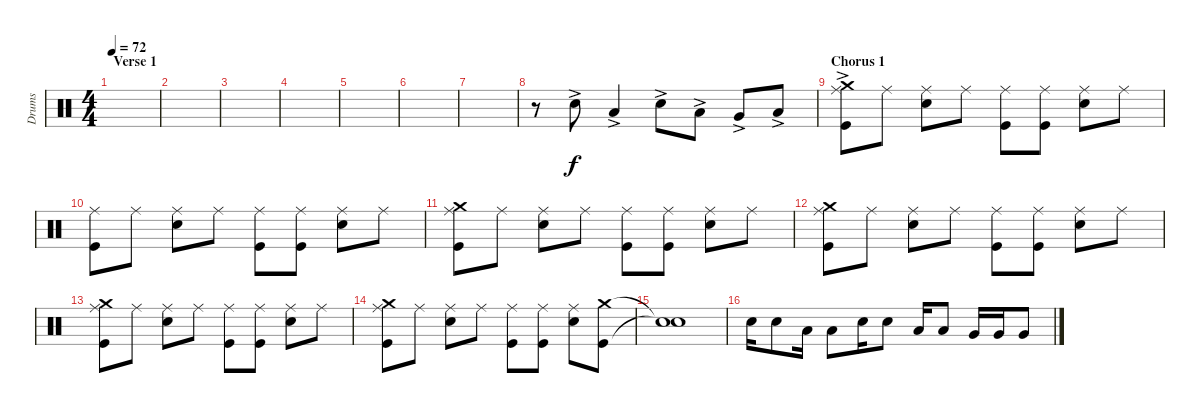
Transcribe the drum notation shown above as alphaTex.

\track ("Drums" "Drums") {instrument percussion}
\staff {score}
\articulation defaults
\ts (4 4)
\section ("" "Verse 1")
\tempo 72
\clef neutral
\ks c
|
|
|
|
|
|
|
r.8 "Snare (hit) 2"{ac}.8 "Low Tom (hit)"{ac}.4 "Snare (hit) 2"{ac}.8 "Low Tom (hit)"{ac}.8 "Very Low Tom (hit)"{ac}.8 "Low Floor Tom (hit)"{ac}.8 |
\section ("" "Chorus 1")
("Ride (middle)" "Crash medium (hit)"{ac} "Kick (hit)").8 "Ride (middle)".8{dy f} ("Ride (middle)" "Snare (hit) 2").8 "Ride (middle)".8 ("Ride (middle)" "Kick (hit)").8 ("Ride (middle)" "Kick (hit)").8 ("Ride (middle)" "Snare (hit) 2").8 "Ride (middle)".8 |
("Ride (middle)" "Kick (hit)").8 "Ride (middle)".8 ("Ride (middle)" "Snare (hit) 2").8 "Ride (middle)".8 ("Ride (middle)" "Kick (hit)").8 ("Ride (middle)" "Kick (hit)").8 ("Ride (middle)" "Snare (hit) 2").8 "Ride (middle)".8 |
("Ride (middle)" "Crash medium (hit)" "Kick (hit)").8 "Ride (middle)".8 ("Ride (middle)" "Snare (hit) 2").8 "Ride (middle)".8 ("Ride (middle)" "Kick (hit)").8 ("Ride (middle)" "Kick (hit)").8 ("Ride (middle)" "Snare (hit) 2").8 "Ride (middle)".8 |
("Ride (middle)" "Crash medium (hit)" "Kick (hit)").8 "Ride (middle)".8 ("Ride (middle)" "Snare (hit) 2").8 "Ride (middle)".8 ("Ride (middle)" "Kick (hit)").8 ("Ride (middle)" "Kick (hit)").8 ("Ride (middle)" "Snare (hit) 2").8 "Ride (middle)".8 |
("Ride (middle)" "Crash medium (hit)" "Kick (hit)").8 "Ride (middle)".8 ("Ride (middle)" "Snare (hit) 2").8 "Ride (middle)".8 ("Ride (middle)" "Kick (hit)").8 ("Ride (middle)" "Kick (hit)").8 ("Ride (middle)" "Snare (hit) 2").8 "Ride (middle)".8 |
("Ride (middle)" "Crash medium (hit)" "Kick (hit)").8 "Ride (middle)".8 ("Ride (middle)" "Snare (hit) 2").8 "Ride (middle)".8 ("Ride (middle)" "Kick (hit)").8 ("Ride (middle)" "Kick (hit)").8 ("Ride (middle)" "Snare (hit) 2").8 ("Crash medium (hit)" "Kick (hit)").8 |
("Snare (hit)"{t} "Snare (hit)"{t}).1 |
"Snare (hit) 2".16 "Snare (hit) 2".8 "Low Tom (hit)".16 "Low Tom (hit)".8 "Snare (hit) 2".16 "Snare (hit) 2".8 "Low Tom (hit)".16 "Low Tom (hit)".8 "Very Low Tom (hit)".16 "Very Low Tom (hit)".16 "Very Low Tom (hit)".8
